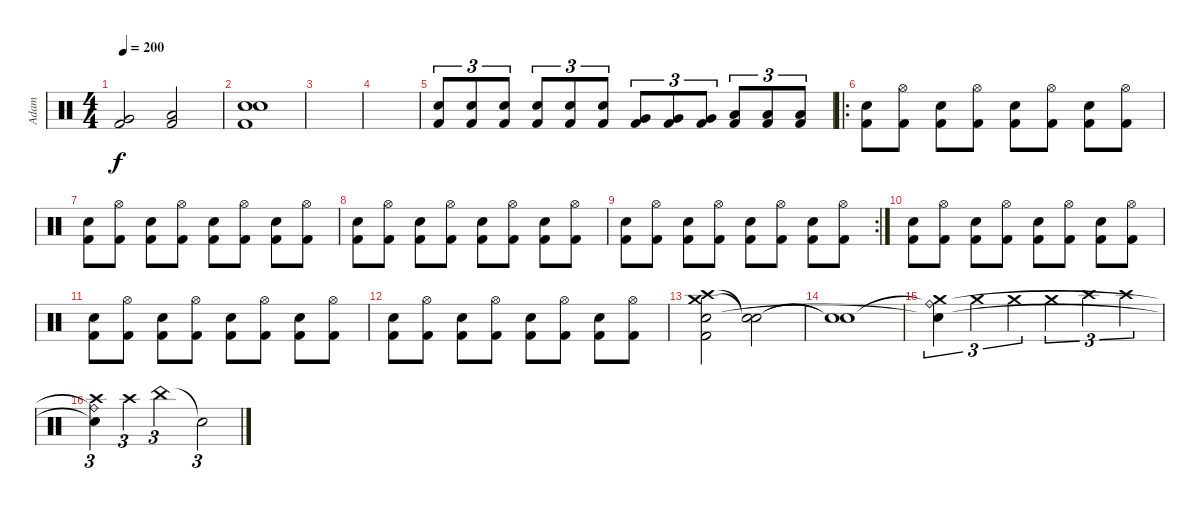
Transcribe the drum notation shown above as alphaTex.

\track ("Adam" "Adam") {instrument percussion}
\staff {score}
\articulation defaults
\ts (4 4)
\tempo 200
\clef neutral
\ks c
("Very Low Tom (hit)" "Kick (hit) 2").2{dy f} ("Low Floor Tom (hit)" "Kick (hit) 2").2 |
("Electric Snare (hit)" "Snare (hit) 2" "Kick (hit) 2").1 |
|
|
("Electric Snare (hit)" "Kick (hit) 2").8{tu (3 2)} ("Electric Snare (hit)" "Kick (hit) 2").8{tu (3 2)} ("Electric Snare (hit)" "Kick (hit) 2").8{tu (3 2)} ("Snare (hit) 2" "Kick (hit) 2").8{tu (3 2)} ("Snare (hit) 2" "Kick (hit) 2").8{tu (3 2)} ("Snare (hit) 2" "Kick (hit) 2").8{tu (3 2)} ("Very Low Tom (hit)" "Kick (hit) 2").8{tu (3 2)} ("Very Low Tom (hit)" "Kick (hit) 2").8{tu (3 2)} ("Very Low Tom (hit)" "Kick (hit) 2").8{tu (3 2)} ("Low Floor Tom (hit)" "Kick (hit) 2").8{tu (3 2)} ("Low Floor Tom (hit)" "Kick (hit) 2").8{tu (3 2)} ("Low Floor Tom (hit)" "Kick (hit) 2").8{tu (3 2)} |
\ro
("Snare (hit) 2" "Kick (hit) 2").8 ("Hi-Hat (open)" "Kick (hit) 2").8 ("Snare (hit) 2" "Kick (hit) 2").8 ("Hi-Hat (open)" "Kick (hit) 2").8 ("Snare (hit) 2" "Kick (hit) 2").8 ("Hi-Hat (open)" "Kick (hit) 2").8 ("Snare (hit) 2" "Kick (hit) 2").8 ("Hi-Hat (open)" "Kick (hit) 2").8 |
("Snare (hit) 2" "Kick (hit) 2").8 ("Hi-Hat (open)" "Kick (hit) 2").8 ("Snare (hit) 2" "Kick (hit) 2").8 ("Hi-Hat (open)" "Kick (hit) 2").8 ("Snare (hit) 2" "Kick (hit) 2").8 ("Hi-Hat (open)" "Kick (hit) 2").8 ("Snare (hit) 2" "Kick (hit) 2").8 ("Hi-Hat (open)" "Kick (hit) 2").8 |
("Snare (hit) 2" "Kick (hit) 2").8 ("Hi-Hat (open)" "Kick (hit) 2").8 ("Snare (hit) 2" "Kick (hit) 2").8 ("Hi-Hat (open)" "Kick (hit) 2").8 ("Snare (hit) 2" "Kick (hit) 2").8 ("Hi-Hat (open)" "Kick (hit) 2").8 ("Snare (hit) 2" "Kick (hit) 2").8 ("Hi-Hat (open)" "Kick (hit) 2").8 |
\rc 2
("Snare (hit) 2" "Kick (hit) 2").8 ("Hi-Hat (open)" "Kick (hit) 2").8 ("Snare (hit) 2" "Kick (hit) 2").8 ("Hi-Hat (open)" "Kick (hit) 2").8 ("Snare (hit) 2" "Kick (hit) 2").8 ("Hi-Hat (open)" "Kick (hit) 2").8 ("Snare (hit) 2" "Kick (hit) 2").8 ("Hi-Hat (open)" "Kick (hit) 2").8 |
("Snare (hit) 2" "Kick (hit) 2").8 ("Hi-Hat (open)" "Kick (hit) 2").8 ("Snare (hit) 2" "Kick (hit) 2").8 ("Hi-Hat (open)" "Kick (hit) 2").8 ("Snare (hit) 2" "Kick (hit) 2").8 ("Hi-Hat (open)" "Kick (hit) 2").8 ("Snare (hit) 2" "Kick (hit) 2").8 ("Hi-Hat (open)" "Kick (hit) 2").8 |
("Snare (hit) 2" "Kick (hit) 2").8 ("Hi-Hat (open)" "Kick (hit) 2").8 ("Snare (hit) 2" "Kick (hit) 2").8 ("Hi-Hat (open)" "Kick (hit) 2").8 ("Snare (hit) 2" "Kick (hit) 2").8 ("Hi-Hat (open)" "Kick (hit) 2").8 ("Snare (hit) 2" "Kick (hit) 2").8 ("Hi-Hat (open)" "Kick (hit) 2").8 |
("Snare (hit) 2" "Kick (hit) 2").8 ("Hi-Hat (open)" "Kick (hit) 2").8 ("Snare (hit) 2" "Kick (hit) 2").8 ("Hi-Hat (open)" "Kick (hit) 2").8 ("Snare (hit) 2" "Kick (hit) 2").8 ("Hi-Hat (open)" "Kick (hit) 2").8 ("Snare (hit) 2" "Kick (hit) 2").8 ("Hi-Hat (open)" "Kick (hit) 2").8 |
("Crash high (hit)" "Crash medium (hit)" "Snare (hit) 2" "Kick (hit) 2").2 ("Snare (hit)"{t} "Snare (hit)"{t}).2 |
("Snare (hit)"{t} "Snare (hit)"{t}).1 |
("Crash medium (hit)" "Ride (bell)"{t} "Snare (hit)"{t}).4{tu (3 2) volume 7} "Crash medium (hit)".4{tu (3 2) volume 7} "Crash medium (hit)".4{tu (3 2) volume 7} "Crash medium (hit)".4{tu (3 2) volume 7} "Crash high (hit)".4{tu (3 2) volume 7} "Crash high (hit)".4{tu (3 2) volume 7} |
("Crash high (hit)" "Ride (bell)"{t} "Snare (hit)"{t}).4{tu (3 2) volume 7} "Crash high (hit)".4{tu (3 2) volume 7} "China (hit)".2{tu (3 2) volume 7} "Snare (hit)"{t}.2{tu (3 2)}
